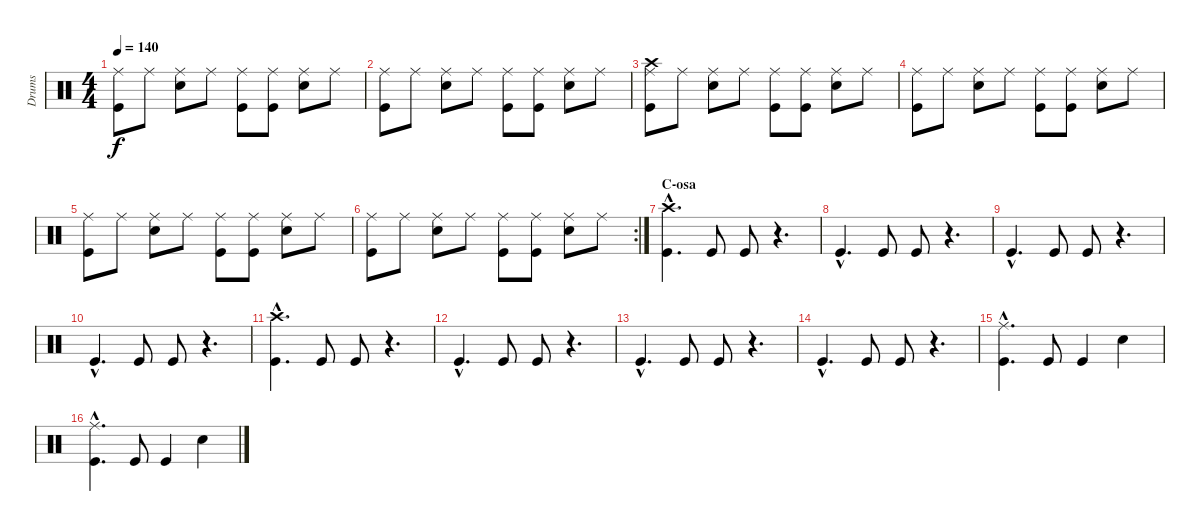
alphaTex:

\track ("Drums" "Drums") {instrument percussion}
\staff {score}
\articulation defaults
\ts (4 4)
\tempo 140
\clef neutral
\ks c
("Ride (middle)" "Kick (hit)").8{dy f} "Ride (middle)".8 ("Ride (middle)" "Snare (hit) 2").8 "Ride (middle)".8 ("Ride (middle)" "Kick (hit)").8 ("Ride (middle)" "Kick (hit)").8 ("Ride (middle)" "Snare (hit) 2").8 "Ride (middle)".8 |
("Ride (middle)" "Kick (hit)").8 "Ride (middle)".8 ("Ride (middle)" "Snare (hit) 2").8 "Ride (middle)".8 ("Ride (middle)" "Kick (hit)").8 ("Ride (middle)" "Kick (hit)").8 ("Ride (middle)" "Snare (hit) 2").8 "Ride (middle)".8 |
("Ride (middle)" "Crash high (hit)" "Kick (hit)").8 "Ride (middle)".8 ("Ride (middle)" "Snare (hit) 2").8 "Ride (middle)".8 ("Ride (middle)" "Kick (hit)").8 ("Ride (middle)" "Kick (hit)").8 ("Ride (middle)" "Snare (hit) 2").8 "Ride (middle)".8 |
("Ride (middle)" "Kick (hit)").8 "Ride (middle)".8 ("Ride (middle)" "Snare (hit) 2").8 "Ride (middle)".8 ("Ride (middle)" "Kick (hit)").8 ("Ride (middle)" "Kick (hit)").8 ("Ride (middle)" "Snare (hit) 2").8 "Ride (middle)".8 |
("Ride (middle)" "Kick (hit)").8 "Ride (middle)".8 ("Ride (middle)" "Snare (hit) 2").8 "Ride (middle)".8 ("Ride (middle)" "Kick (hit)").8 ("Ride (middle)" "Kick (hit)").8 ("Ride (middle)" "Snare (hit) 2").8 "Ride (middle)".8 |
\rc 2
("Ride (middle)" "Kick (hit)").8 "Ride (middle)".8 ("Ride (middle)" "Snare (hit) 2").8 "Ride (middle)".8 ("Ride (middle)" "Kick (hit)").8 ("Ride (middle)" "Kick (hit)").8 ("Ride (middle)" "Snare (hit) 2").8 "Ride (middle)".8 |
\section ("" "C-osa")
("Crash high (hit)"{hac} "Kick (hit)"{hac}).4{d} "Kick (hit)".8 "Kick (hit)".8 r.4{d} |
"Kick (hit)"{hac}.4{d} "Kick (hit)".8 "Kick (hit)".8 r.4{d} |
"Kick (hit)"{hac}.4{d} "Kick (hit)".8 "Kick (hit)".8 r.4{d} |
"Kick (hit)"{hac}.4{d} "Kick (hit)".8 "Kick (hit)".8 r.4{d} |
("Crash high (hit)"{hac} "Kick (hit)"{hac}).4{d} "Kick (hit)".8 "Kick (hit)".8 r.4{d} |
"Kick (hit)"{hac}.4{d} "Kick (hit)".8 "Kick (hit)".8 r.4{d} |
"Kick (hit)"{hac}.4{d} "Kick (hit)".8 "Kick (hit)".8 r.4{d} |
"Kick (hit)"{hac}.4{d} "Kick (hit)".8 "Kick (hit)".8 r.4{d} |
("Ride (middle)"{hac} "Kick (hit)"{hac}).4{d} "Kick (hit)".8 "Kick (hit)".4 "Snare (hit) 2".4 |
("Ride (middle)"{hac} "Kick (hit)"{hac}).4{d} "Kick (hit)".8 "Kick (hit)".4 "Snare (hit) 2".4
